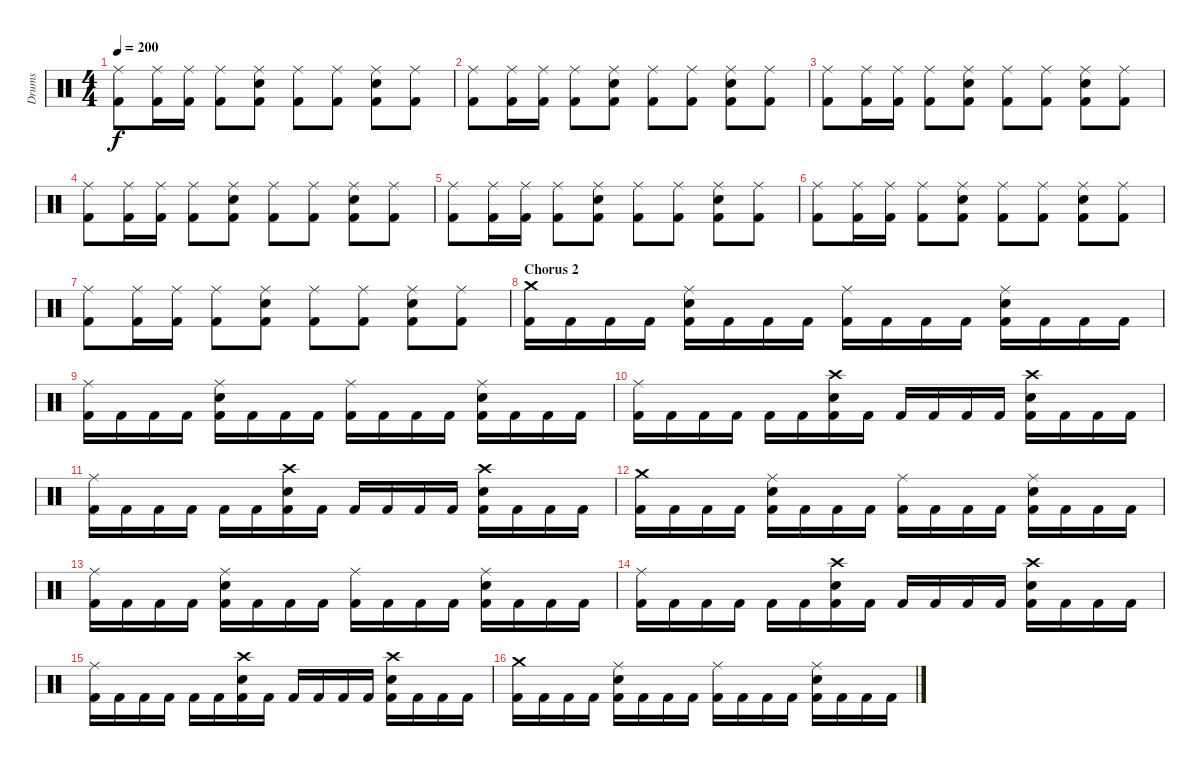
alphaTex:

\track ("Drums" "Drums") {instrument percussion}
\staff {score}
\articulation defaults
\ts (4 4)
\tempo 200
\clef neutral
\ks c
("Ride (middle)" "Kick (hit) 2").8{dy f} ("Ride (middle)" "Kick (hit) 2").16 ("Ride (middle)" "Kick (hit) 2").16 ("Ride (middle)" "Kick (hit) 2").8 ("Ride (middle)" "Snare (hit) 2" "Kick (hit) 2").8 ("Ride (middle)" "Kick (hit) 2").8 ("Ride (middle)" "Kick (hit) 2").8 ("Ride (middle)" "Snare (hit) 2" "Kick (hit) 2").8 ("Ride (middle)" "Kick (hit) 2").8 |
("Ride (middle)" "Kick (hit) 2").8 ("Ride (middle)" "Kick (hit) 2").16 ("Ride (middle)" "Kick (hit) 2").16 ("Ride (middle)" "Kick (hit) 2").8 ("Ride (middle)" "Snare (hit) 2" "Kick (hit) 2").8 ("Ride (middle)" "Kick (hit) 2").8 ("Ride (middle)" "Kick (hit) 2").8 ("Ride (middle)" "Snare (hit) 2" "Kick (hit) 2").8 ("Ride (middle)" "Kick (hit) 2").8 |
("Ride (middle)" "Kick (hit) 2").8 ("Ride (middle)" "Kick (hit) 2").16 ("Ride (middle)" "Kick (hit) 2").16 ("Ride (middle)" "Kick (hit) 2").8 ("Ride (middle)" "Snare (hit) 2" "Kick (hit) 2").8 ("Ride (middle)" "Kick (hit) 2").8 ("Ride (middle)" "Kick (hit) 2").8 ("Ride (middle)" "Snare (hit) 2" "Kick (hit) 2").8 ("Ride (middle)" "Kick (hit) 2").8 |
("Ride (middle)" "Kick (hit) 2").8 ("Ride (middle)" "Kick (hit) 2").16 ("Ride (middle)" "Kick (hit) 2").16 ("Ride (middle)" "Kick (hit) 2").8 ("Ride (middle)" "Snare (hit) 2" "Kick (hit) 2").8 ("Ride (middle)" "Kick (hit) 2").8 ("Ride (middle)" "Kick (hit) 2").8 ("Ride (middle)" "Snare (hit) 2" "Kick (hit) 2").8 ("Ride (middle)" "Kick (hit) 2").8 |
("Ride (middle)" "Kick (hit) 2").8 ("Ride (middle)" "Kick (hit) 2").16 ("Ride (middle)" "Kick (hit) 2").16 ("Ride (middle)" "Kick (hit) 2").8 ("Ride (middle)" "Snare (hit) 2" "Kick (hit) 2").8 ("Ride (middle)" "Kick (hit) 2").8 ("Ride (middle)" "Kick (hit) 2").8 ("Ride (middle)" "Snare (hit) 2" "Kick (hit) 2").8 ("Ride (middle)" "Kick (hit) 2").8 |
("Ride (middle)" "Kick (hit) 2").8 ("Ride (middle)" "Kick (hit) 2").16 ("Ride (middle)" "Kick (hit) 2").16 ("Ride (middle)" "Kick (hit) 2").8 ("Ride (middle)" "Snare (hit) 2" "Kick (hit) 2").8 ("Ride (middle)" "Kick (hit) 2").8 ("Ride (middle)" "Kick (hit) 2").8 ("Ride (middle)" "Snare (hit) 2" "Kick (hit) 2").8 ("Ride (middle)" "Kick (hit) 2").8 |
("Ride (middle)" "Kick (hit) 2").8 ("Ride (middle)" "Kick (hit) 2").16 ("Ride (middle)" "Kick (hit) 2").16 ("Ride (middle)" "Kick (hit) 2").8 ("Ride (middle)" "Snare (hit) 2" "Kick (hit) 2").8 ("Ride (middle)" "Kick (hit) 2").8 ("Ride (middle)" "Kick (hit) 2").8 ("Ride (middle)" "Snare (hit) 2" "Kick (hit) 2").8 ("Ride (middle)" "Kick (hit) 2").8 |
\section ("" "Chorus 2")
("Crash medium (hit)" "Kick (hit) 2").16 "Kick (hit) 2".16 "Kick (hit) 2".16 "Kick (hit) 2".16 ("Ride (middle)" "Snare (hit) 2" "Kick (hit) 2").16 "Kick (hit) 2".16 "Kick (hit) 2".16 "Kick (hit) 2".16 ("Ride (middle)" "Kick (hit) 2").16 "Kick (hit) 2".16 "Kick (hit) 2".16 "Kick (hit) 2".16 ("Ride (middle)" "Snare (hit) 2" "Kick (hit) 2").16 "Kick (hit) 2".16 "Kick (hit) 2".16 "Kick (hit) 2".16 |
("Ride (middle)" "Kick (hit) 2").16 "Kick (hit) 2".16 "Kick (hit) 2".16 "Kick (hit) 2".16 ("Ride (middle)" "Snare (hit) 2" "Kick (hit) 2").16 "Kick (hit) 2".16 "Kick (hit) 2".16 "Kick (hit) 2".16 ("Ride (middle)" "Kick (hit) 2").16 "Kick (hit) 2".16 "Kick (hit) 2".16 "Kick (hit) 2".16 ("Ride (middle)" "Snare (hit) 2" "Kick (hit) 2").16 "Kick (hit) 2".16 "Kick (hit) 2".16 "Kick (hit) 2".16 |
("Ride (middle)" "Kick (hit) 2").16 "Kick (hit) 2".16 "Kick (hit) 2".16 "Kick (hit) 2".16 "Kick (hit) 2".16 "Kick (hit) 2".16 ("Crash high (hit)" "Snare (hit) 2" "Kick (hit) 2").16 "Kick (hit) 2".16 "Kick (hit) 2".16 "Kick (hit) 2".16 "Kick (hit) 2".16 "Kick (hit) 2".16 ("Crash high (hit)" "Snare (hit) 2" "Kick (hit) 2").16 "Kick (hit) 2".16 "Kick (hit) 2".16 "Kick (hit) 2".16 |
("Ride (middle)" "Kick (hit) 2").16 "Kick (hit) 2".16 "Kick (hit) 2".16 "Kick (hit) 2".16 "Kick (hit) 2".16 "Kick (hit) 2".16 ("Crash high (hit)" "Snare (hit) 2" "Kick (hit) 2").16 "Kick (hit) 2".16 "Kick (hit) 2".16 "Kick (hit) 2".16 "Kick (hit) 2".16 "Kick (hit) 2".16 ("Crash high (hit)" "Snare (hit) 2" "Kick (hit) 2").16 "Kick (hit) 2".16 "Kick (hit) 2".16 "Kick (hit) 2".16 |
("Crash medium (hit)" "Kick (hit) 2").16 "Kick (hit) 2".16 "Kick (hit) 2".16 "Kick (hit) 2".16 ("Ride (middle)" "Snare (hit) 2" "Kick (hit) 2").16 "Kick (hit) 2".16 "Kick (hit) 2".16 "Kick (hit) 2".16 ("Ride (middle)" "Kick (hit) 2").16 "Kick (hit) 2".16 "Kick (hit) 2".16 "Kick (hit) 2".16 ("Ride (middle)" "Snare (hit) 2" "Kick (hit) 2").16 "Kick (hit) 2".16 "Kick (hit) 2".16 "Kick (hit) 2".16 |
("Ride (middle)" "Kick (hit) 2").16 "Kick (hit) 2".16 "Kick (hit) 2".16 "Kick (hit) 2".16 ("Ride (middle)" "Snare (hit) 2" "Kick (hit) 2").16 "Kick (hit) 2".16 "Kick (hit) 2".16 "Kick (hit) 2".16 ("Ride (middle)" "Kick (hit) 2").16 "Kick (hit) 2".16 "Kick (hit) 2".16 "Kick (hit) 2".16 ("Ride (middle)" "Snare (hit) 2" "Kick (hit) 2").16 "Kick (hit) 2".16 "Kick (hit) 2".16 "Kick (hit) 2".16 |
("Ride (middle)" "Kick (hit) 2").16 "Kick (hit) 2".16 "Kick (hit) 2".16 "Kick (hit) 2".16 "Kick (hit) 2".16 "Kick (hit) 2".16 ("Crash high (hit)" "Snare (hit) 2" "Kick (hit) 2").16 "Kick (hit) 2".16 "Kick (hit) 2".16 "Kick (hit) 2".16 "Kick (hit) 2".16 "Kick (hit) 2".16 ("Crash high (hit)" "Snare (hit) 2" "Kick (hit) 2").16 "Kick (hit) 2".16 "Kick (hit) 2".16 "Kick (hit) 2".16 |
("Ride (middle)" "Kick (hit) 2").16 "Kick (hit) 2".16 "Kick (hit) 2".16 "Kick (hit) 2".16 "Kick (hit) 2".16 "Kick (hit) 2".16 ("Crash high (hit)" "Snare (hit) 2" "Kick (hit) 2").16 "Kick (hit) 2".16 "Kick (hit) 2".16 "Kick (hit) 2".16 "Kick (hit) 2".16 "Kick (hit) 2".16 ("Crash high (hit)" "Snare (hit) 2" "Kick (hit) 2").16 "Kick (hit) 2".16 "Kick (hit) 2".16 "Kick (hit) 2".16 |
("Crash medium (hit)" "Kick (hit) 2").16 "Kick (hit) 2".16 "Kick (hit) 2".16 "Kick (hit) 2".16 ("Ride (middle)" "Snare (hit) 2" "Kick (hit) 2").16 "Kick (hit) 2".16 "Kick (hit) 2".16 "Kick (hit) 2".16 ("Ride (middle)" "Kick (hit) 2").16 "Kick (hit) 2".16 "Kick (hit) 2".16 "Kick (hit) 2".16 ("Ride (middle)" "Snare (hit) 2" "Kick (hit) 2").16 "Kick (hit) 2".16 "Kick (hit) 2".16 "Kick (hit) 2".16
